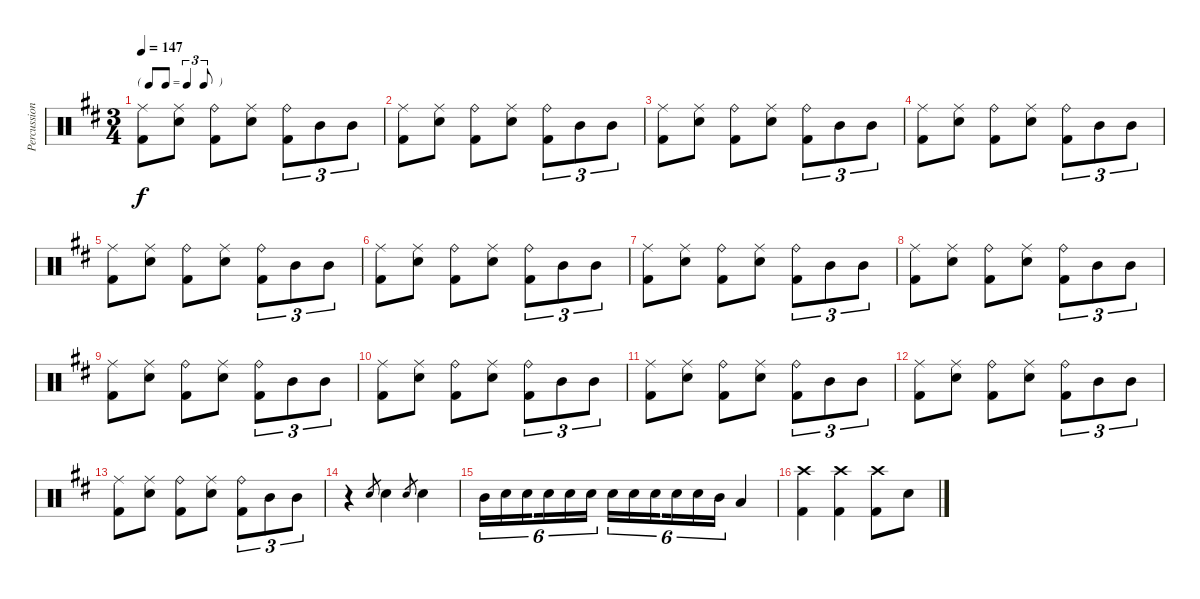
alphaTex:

\track ("Percussion" "Percussion") {instrument percussion}
\staff {score}
\articulation defaults
\ts (3 4)
\tf triplet8th
\tempo 147
\clef neutral
\ks d
("Ride (middle)" "Kick (hit) 2").8{dy f} ("Ride (middle)" "Snare (hit) 2").8 ("Ride (bell)" "Kick (hit) 2").8 ("Ride (middle)" "Snare (hit) 2").8 ("Ride (bell)" "Kick (hit) 2").8{tu (3 2)} "Mid Tom (hit)".8{tu (3 2)} "Mid Tom (hit)".8{tu (3 2)} |
("Ride (middle)" "Kick (hit) 2").8 ("Ride (middle)" "Snare (hit) 2").8 ("Ride (bell)" "Kick (hit) 2").8 ("Ride (middle)" "Snare (hit) 2").8 ("Ride (bell)" "Kick (hit) 2").8{tu (3 2)} "Mid Tom (hit)".8{tu (3 2)} "Mid Tom (hit)".8{tu (3 2)} |
("Ride (middle)" "Kick (hit) 2").8 ("Ride (middle)" "Snare (hit) 2").8 ("Ride (bell)" "Kick (hit) 2").8 ("Ride (middle)" "Snare (hit) 2").8 ("Ride (bell)" "Kick (hit) 2").8{tu (3 2)} "Mid Tom (hit)".8{tu (3 2)} "Mid Tom (hit)".8{tu (3 2)} |
("Ride (middle)" "Kick (hit) 2").8 ("Ride (middle)" "Snare (hit) 2").8 ("Ride (bell)" "Kick (hit) 2").8 ("Ride (middle)" "Snare (hit) 2").8 ("Ride (bell)" "Kick (hit) 2").8{tu (3 2)} "Mid Tom (hit)".8{tu (3 2)} "Mid Tom (hit)".8{tu (3 2)} |
("Ride (middle)" "Kick (hit) 2").8 ("Ride (middle)" "Snare (hit) 2").8 ("Ride (bell)" "Kick (hit) 2").8 ("Ride (middle)" "Snare (hit) 2").8 ("Ride (bell)" "Kick (hit) 2").8{tu (3 2)} "Mid Tom (hit)".8{tu (3 2)} "Mid Tom (hit)".8{tu (3 2)} |
("Ride (middle)" "Kick (hit) 2").8 ("Ride (middle)" "Snare (hit) 2").8 ("Ride (bell)" "Kick (hit) 2").8 ("Ride (middle)" "Snare (hit) 2").8 ("Ride (bell)" "Kick (hit) 2").8{tu (3 2)} "Mid Tom (hit)".8{tu (3 2)} "Mid Tom (hit)".8{tu (3 2)} |
("Ride (middle)" "Kick (hit) 2").8 ("Ride (middle)" "Snare (hit) 2").8 ("Ride (bell)" "Kick (hit) 2").8 ("Ride (middle)" "Snare (hit) 2").8 ("Ride (bell)" "Kick (hit) 2").8{tu (3 2)} "Mid Tom (hit)".8{tu (3 2)} "Mid Tom (hit)".8{tu (3 2)} |
("Ride (middle)" "Kick (hit) 2").8 ("Ride (middle)" "Snare (hit) 2").8 ("Ride (bell)" "Kick (hit) 2").8 ("Ride (middle)" "Snare (hit) 2").8 ("Ride (bell)" "Kick (hit) 2").8{tu (3 2)} "Mid Tom (hit)".8{tu (3 2)} "Mid Tom (hit)".8{tu (3 2)} |
("Ride (middle)" "Kick (hit) 2").8 ("Ride (middle)" "Snare (hit) 2").8 ("Ride (bell)" "Kick (hit) 2").8 ("Ride (middle)" "Snare (hit) 2").8 ("Ride (bell)" "Kick (hit) 2").8{tu (3 2)} "Mid Tom (hit)".8{tu (3 2)} "Mid Tom (hit)".8{tu (3 2)} |
("Ride (middle)" "Kick (hit) 2").8 ("Ride (middle)" "Snare (hit) 2").8 ("Ride (bell)" "Kick (hit) 2").8 ("Ride (middle)" "Snare (hit) 2").8 ("Ride (bell)" "Kick (hit) 2").8{tu (3 2)} "Mid Tom (hit)".8{tu (3 2)} "Mid Tom (hit)".8{tu (3 2)} |
("Ride (middle)" "Kick (hit) 2").8 ("Ride (middle)" "Snare (hit) 2").8 ("Ride (bell)" "Kick (hit) 2").8 ("Ride (middle)" "Snare (hit) 2").8 ("Ride (bell)" "Kick (hit) 2").8{tu (3 2)} "Mid Tom (hit)".8{tu (3 2)} "Mid Tom (hit)".8{tu (3 2)} |
("Ride (middle)" "Kick (hit) 2").8 ("Ride (middle)" "Snare (hit) 2").8 ("Ride (bell)" "Kick (hit) 2").8 ("Ride (middle)" "Snare (hit) 2").8 ("Ride (bell)" "Kick (hit) 2").8{tu (3 2)} "Mid Tom (hit)".8{tu (3 2)} "Mid Tom (hit)".8{tu (3 2)} |
("Ride (middle)" "Kick (hit) 2").8 ("Ride (middle)" "Snare (hit) 2").8 ("Ride (bell)" "Kick (hit) 2").8 ("Ride (middle)" "Snare (hit) 2").8 ("Ride (bell)" "Kick (hit) 2").8{tu (3 2)} "Mid Tom (hit)".8{tu (3 2)} "Mid Tom (hit)".8{tu (3 2)} |
r.4 "Snare (hit) 2".8{gr} "Snare (hit) 2".4 "Snare (hit) 2".8{gr} "Snare (hit) 2".4 |
"Mid Tom (hit)".16{tu (6 4)} "Snare (hit) 2".16{tu (6 4)} "Snare (hit) 2".16{tu (6 4) beam splitsecondary} "Snare (hit) 2".16{tu (6 4)} "Snare (hit) 2".16{tu (6 4)} "Snare (hit) 2".16{tu (6 4)} "Snare (hit) 2".16{tu (6 4)} "Snare (hit) 2".16{tu (6 4)} "Snare (hit) 2".16{tu (6 4) beam splitsecondary} "Snare (hit) 2".16{tu (6 4)} "Snare (hit) 2".16{tu (6 4)} "Mid Tom (hit)".16{tu (6 4)} "Low Tom (hit)".4 |
("Crash high (hit)" "Kick (hit) 2").4 ("Crash high (hit)" "Kick (hit) 2").4 ("Crash high (hit)" "Kick (hit) 2").8 "Snare (hit) 2".8
